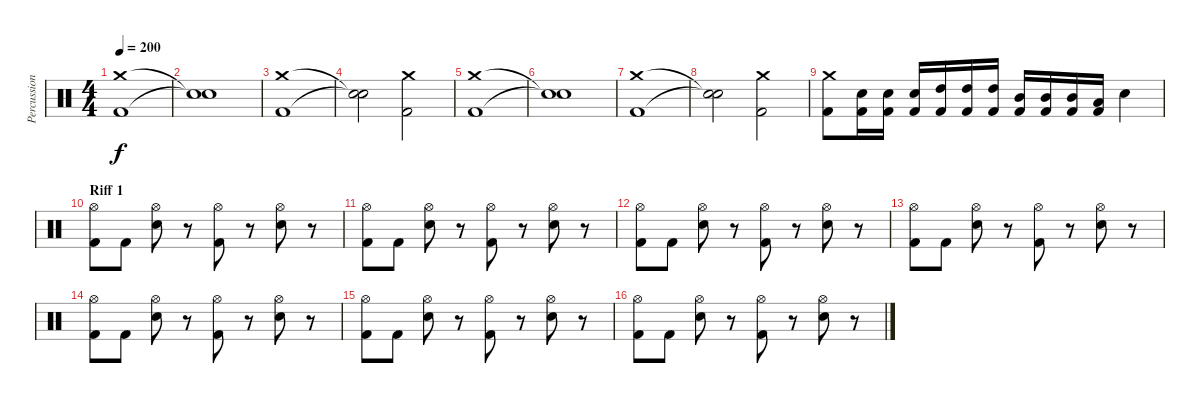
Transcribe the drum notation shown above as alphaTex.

\track ("Percussions ( Brylle )" "Percussion") {instrument percussion}
\staff {score}
\articulation defaults
\ts (4 4)
\tempo 200
\clef neutral
\ks c
("Crash medium (hit)" "Kick (hit) 2").1{dy f} |
("Snare (hit)"{t} "Snare (hit)"{t}).1 |
("Crash medium (hit)" "Kick (hit) 2").1 |
("Snare (hit)"{t} "Snare (hit)"{t}).2 ("Crash medium (hit)" "Kick (hit) 2").2 |
("Crash medium (hit)" "Kick (hit) 2").1 |
("Snare (hit)"{t} "Snare (hit)"{t}).1 |
("Crash medium (hit)" "Kick (hit) 2").1 |
("Snare (hit)"{t} "Snare (hit)"{t}).2 ("Crash medium (hit)" "Kick (hit) 2").2 |
("Crash medium (hit)" "Kick (hit) 2").8 ("Electric Snare (hit)" "Kick (hit) 2").16 ("Electric Snare (hit)" "Kick (hit) 2").16 ("Electric Snare (hit)" "Kick (hit) 2").16 ("High Tom (hit)" "Kick (hit) 2").16 ("High Tom (hit)" "Kick (hit) 2").16 ("High Tom (hit)" "Kick (hit) 2").16 ("Mid Tom (hit)" "Kick (hit) 2").16 ("Mid Tom (hit)" "Kick (hit) 2").16 ("Mid Tom (hit)" "Kick (hit) 2").16 ("Low Tom (hit)" "Kick (hit) 2").16 "Electric Snare (hit)".4 |
\section ("" "Riff 1")
("Hi-Hat (open)" "Kick (hit) 2").8 "Kick (hit) 2".8 ("Hi-Hat (open)" "Electric Snare (hit)").8 r.8 ("Hi-Hat (open)" "Kick (hit) 2").8 r.8 ("Hi-Hat (open)" "Electric Snare (hit)").8 r.8 |
("Hi-Hat (open)" "Kick (hit) 2").8 "Kick (hit) 2".8 ("Hi-Hat (open)" "Electric Snare (hit)").8 r.8 ("Hi-Hat (open)" "Kick (hit) 2").8 r.8 ("Hi-Hat (open)" "Electric Snare (hit)").8 r.8 |
("Hi-Hat (open)" "Kick (hit) 2").8 "Kick (hit) 2".8 ("Hi-Hat (open)" "Electric Snare (hit)").8 r.8 ("Hi-Hat (open)" "Kick (hit) 2").8 r.8 ("Hi-Hat (open)" "Electric Snare (hit)").8 r.8 |
("Hi-Hat (open)" "Kick (hit) 2").8 "Kick (hit) 2".8 ("Hi-Hat (open)" "Electric Snare (hit)").8 r.8 ("Hi-Hat (open)" "Kick (hit) 2").8 r.8 ("Hi-Hat (open)" "Electric Snare (hit)").8 r.8 |
("Hi-Hat (open)" "Kick (hit) 2").8 "Kick (hit) 2".8 ("Hi-Hat (open)" "Electric Snare (hit)").8 r.8 ("Hi-Hat (open)" "Kick (hit) 2").8 r.8 ("Hi-Hat (open)" "Electric Snare (hit)").8 r.8 |
("Hi-Hat (open)" "Kick (hit) 2").8 "Kick (hit) 2".8 ("Hi-Hat (open)" "Electric Snare (hit)").8 r.8 ("Hi-Hat (open)" "Kick (hit) 2").8 r.8 ("Hi-Hat (open)" "Electric Snare (hit)").8 r.8 |
("Hi-Hat (open)" "Kick (hit) 2").8 "Kick (hit) 2".8 ("Hi-Hat (open)" "Electric Snare (hit)").8 r.8 ("Hi-Hat (open)" "Kick (hit) 2").8 r.8 ("Hi-Hat (open)" "Electric Snare (hit)").8 r.8
